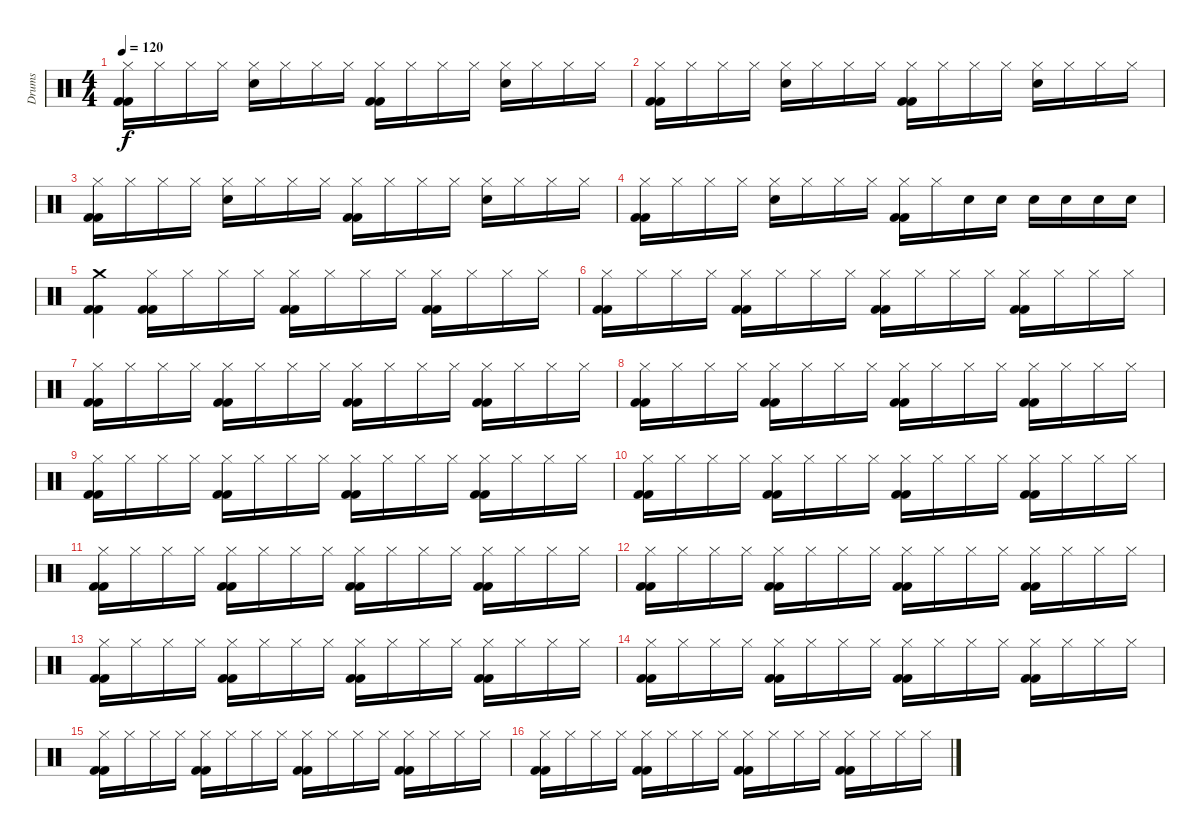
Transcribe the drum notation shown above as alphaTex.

\track ("Drums" "Drums") {instrument percussion}
\staff {score}
\articulation defaults
\ts (4 4)
\tempo 120
\clef neutral
\ks c
("Hi-Hat (closed)" "Kick (hit) 2" "Kick (hit) 2").16{dy f} "Hi-Hat (closed)".16 "Hi-Hat (closed)".16 "Hi-Hat (closed)".16 ("Hi-Hat (closed)" "Electric Snare (hit)").16 "Hi-Hat (closed)".16 "Hi-Hat (closed)".16 "Hi-Hat (closed)".16 ("Hi-Hat (closed)" "Kick (hit) 2" "Kick (hit) 2").16 "Hi-Hat (closed)".16 "Hi-Hat (closed)".16 "Hi-Hat (closed)".16 ("Hi-Hat (closed)" "Electric Snare (hit)").16 "Hi-Hat (closed)".16 "Hi-Hat (closed)".16 "Hi-Hat (closed)".16 |
("Hi-Hat (closed)" "Kick (hit) 2" "Kick (hit) 2").16 "Hi-Hat (closed)".16 "Hi-Hat (closed)".16 "Hi-Hat (closed)".16 ("Hi-Hat (closed)" "Electric Snare (hit)").16 "Hi-Hat (closed)".16 "Hi-Hat (closed)".16 "Hi-Hat (closed)".16 ("Hi-Hat (closed)" "Kick (hit) 2" "Kick (hit) 2").16 "Hi-Hat (closed)".16 "Hi-Hat (closed)".16 "Hi-Hat (closed)".16 ("Hi-Hat (closed)" "Electric Snare (hit)").16 "Hi-Hat (closed)".16 "Hi-Hat (closed)".16 "Hi-Hat (closed)".16 |
("Hi-Hat (closed)" "Kick (hit) 2" "Kick (hit) 2").16 "Hi-Hat (closed)".16 "Hi-Hat (closed)".16 "Hi-Hat (closed)".16 ("Hi-Hat (closed)" "Electric Snare (hit)").16 "Hi-Hat (closed)".16 "Hi-Hat (closed)".16 "Hi-Hat (closed)".16 ("Hi-Hat (closed)" "Kick (hit) 2" "Kick (hit) 2").16 "Hi-Hat (closed)".16 "Hi-Hat (closed)".16 "Hi-Hat (closed)".16 ("Hi-Hat (closed)" "Electric Snare (hit)").16 "Hi-Hat (closed)".16 "Hi-Hat (closed)".16 "Hi-Hat (closed)".16 |
("Hi-Hat (closed)" "Kick (hit) 2" "Kick (hit) 2").16 "Hi-Hat (closed)".16 "Hi-Hat (closed)".16 "Hi-Hat (closed)".16 ("Hi-Hat (closed)" "Electric Snare (hit)").16 "Hi-Hat (closed)".16 "Hi-Hat (closed)".16 "Hi-Hat (closed)".16 ("Hi-Hat (closed)" "Kick (hit) 2" "Kick (hit) 2").16 "Hi-Hat (closed)".16 "Electric Snare (hit)".16 "Electric Snare (hit)".16 "Electric Snare (hit)".16 "Electric Snare (hit)".16 "Electric Snare (hit)".16 "Electric Snare (hit)".16 |
("Crash medium (hit)" "Kick (hit) 2" "Kick (hit) 2").4 ("Hi-Hat (closed)" "Kick (hit) 2" "Kick (hit) 2").16 "Hi-Hat (closed)".16 "Hi-Hat (closed)".16 "Hi-Hat (closed)".16 ("Hi-Hat (closed)" "Kick (hit) 2" "Kick (hit) 2").16 "Hi-Hat (closed)".16 "Hi-Hat (closed)".16 "Hi-Hat (closed)".16 ("Hi-Hat (closed)" "Kick (hit) 2" "Kick (hit) 2").16 "Hi-Hat (closed)".16 "Hi-Hat (closed)".16 "Hi-Hat (closed)".16 |
("Hi-Hat (closed)" "Kick (hit) 2" "Kick (hit) 2").16 "Hi-Hat (closed)".16 "Hi-Hat (closed)".16 "Hi-Hat (closed)".16 ("Hi-Hat (closed)" "Kick (hit) 2" "Kick (hit) 2").16 "Hi-Hat (closed)".16 "Hi-Hat (closed)".16 "Hi-Hat (closed)".16 ("Hi-Hat (closed)" "Kick (hit) 2" "Kick (hit) 2").16 "Hi-Hat (closed)".16 "Hi-Hat (closed)".16 "Hi-Hat (closed)".16 ("Hi-Hat (closed)" "Kick (hit) 2" "Kick (hit) 2").16 "Hi-Hat (closed)".16 "Hi-Hat (closed)".16 "Hi-Hat (closed)".16 |
("Hi-Hat (closed)" "Kick (hit) 2" "Kick (hit) 2").16 "Hi-Hat (closed)".16 "Hi-Hat (closed)".16 "Hi-Hat (closed)".16 ("Hi-Hat (closed)" "Kick (hit) 2" "Kick (hit) 2").16 "Hi-Hat (closed)".16 "Hi-Hat (closed)".16 "Hi-Hat (closed)".16 ("Hi-Hat (closed)" "Kick (hit) 2" "Kick (hit) 2").16 "Hi-Hat (closed)".16 "Hi-Hat (closed)".16 "Hi-Hat (closed)".16 ("Hi-Hat (closed)" "Kick (hit) 2" "Kick (hit) 2").16 "Hi-Hat (closed)".16 "Hi-Hat (closed)".16 "Hi-Hat (closed)".16 |
("Hi-Hat (closed)" "Kick (hit) 2" "Kick (hit) 2").16 "Hi-Hat (closed)".16 "Hi-Hat (closed)".16 "Hi-Hat (closed)".16 ("Hi-Hat (closed)" "Kick (hit) 2" "Kick (hit) 2").16 "Hi-Hat (closed)".16 "Hi-Hat (closed)".16 "Hi-Hat (closed)".16 ("Hi-Hat (closed)" "Kick (hit) 2" "Kick (hit) 2").16 "Hi-Hat (closed)".16 "Hi-Hat (closed)".16 "Hi-Hat (closed)".16 ("Hi-Hat (closed)" "Kick (hit) 2" "Kick (hit) 2").16 "Hi-Hat (closed)".16 "Hi-Hat (closed)".16 "Hi-Hat (closed)".16 |
("Hi-Hat (closed)" "Kick (hit) 2" "Kick (hit) 2").16 "Hi-Hat (closed)".16 "Hi-Hat (closed)".16 "Hi-Hat (closed)".16 ("Hi-Hat (closed)" "Kick (hit) 2" "Kick (hit) 2").16 "Hi-Hat (closed)".16 "Hi-Hat (closed)".16 "Hi-Hat (closed)".16 ("Hi-Hat (closed)" "Kick (hit) 2" "Kick (hit) 2").16 "Hi-Hat (closed)".16 "Hi-Hat (closed)".16 "Hi-Hat (closed)".16 ("Hi-Hat (closed)" "Kick (hit) 2" "Kick (hit) 2").16 "Hi-Hat (closed)".16 "Hi-Hat (closed)".16 "Hi-Hat (closed)".16 |
("Hi-Hat (closed)" "Kick (hit) 2" "Kick (hit) 2").16 "Hi-Hat (closed)".16 "Hi-Hat (closed)".16 "Hi-Hat (closed)".16 ("Hi-Hat (closed)" "Kick (hit) 2" "Kick (hit) 2").16 "Hi-Hat (closed)".16 "Hi-Hat (closed)".16 "Hi-Hat (closed)".16 ("Hi-Hat (closed)" "Kick (hit) 2" "Kick (hit) 2").16 "Hi-Hat (closed)".16 "Hi-Hat (closed)".16 "Hi-Hat (closed)".16 ("Hi-Hat (closed)" "Kick (hit) 2" "Kick (hit) 2").16 "Hi-Hat (closed)".16 "Hi-Hat (closed)".16 "Hi-Hat (closed)".16 |
("Hi-Hat (closed)" "Kick (hit) 2" "Kick (hit) 2").16 "Hi-Hat (closed)".16 "Hi-Hat (closed)".16 "Hi-Hat (closed)".16 ("Hi-Hat (closed)" "Kick (hit) 2" "Kick (hit) 2").16 "Hi-Hat (closed)".16 "Hi-Hat (closed)".16 "Hi-Hat (closed)".16 ("Hi-Hat (closed)" "Kick (hit) 2" "Kick (hit) 2").16 "Hi-Hat (closed)".16 "Hi-Hat (closed)".16 "Hi-Hat (closed)".16 ("Hi-Hat (closed)" "Kick (hit) 2" "Kick (hit) 2").16 "Hi-Hat (closed)".16 "Hi-Hat (closed)".16 "Hi-Hat (closed)".16 |
("Hi-Hat (closed)" "Kick (hit) 2" "Kick (hit) 2").16 "Hi-Hat (closed)".16 "Hi-Hat (closed)".16 "Hi-Hat (closed)".16 ("Hi-Hat (closed)" "Kick (hit) 2" "Kick (hit) 2").16 "Hi-Hat (closed)".16 "Hi-Hat (closed)".16 "Hi-Hat (closed)".16 ("Hi-Hat (closed)" "Kick (hit) 2" "Kick (hit) 2").16 "Hi-Hat (closed)".16 "Hi-Hat (closed)".16 "Hi-Hat (closed)".16 ("Hi-Hat (closed)" "Kick (hit) 2" "Kick (hit) 2").16 "Hi-Hat (closed)".16 "Hi-Hat (closed)".16 "Hi-Hat (closed)".16 |
("Hi-Hat (closed)" "Kick (hit) 2" "Kick (hit) 2").16 "Hi-Hat (closed)".16 "Hi-Hat (closed)".16 "Hi-Hat (closed)".16 ("Hi-Hat (closed)" "Kick (hit) 2" "Kick (hit) 2").16 "Hi-Hat (closed)".16 "Hi-Hat (closed)".16 "Hi-Hat (closed)".16 ("Hi-Hat (closed)" "Kick (hit) 2" "Kick (hit) 2").16 "Hi-Hat (closed)".16 "Hi-Hat (closed)".16 "Hi-Hat (closed)".16 ("Hi-Hat (closed)" "Kick (hit) 2" "Kick (hit) 2").16 "Hi-Hat (closed)".16 "Hi-Hat (closed)".16 "Hi-Hat (closed)".16 |
("Hi-Hat (closed)" "Kick (hit) 2" "Kick (hit) 2").16 "Hi-Hat (closed)".16 "Hi-Hat (closed)".16 "Hi-Hat (closed)".16 ("Hi-Hat (closed)" "Kick (hit) 2" "Kick (hit) 2").16 "Hi-Hat (closed)".16 "Hi-Hat (closed)".16 "Hi-Hat (closed)".16 ("Hi-Hat (closed)" "Kick (hit) 2" "Kick (hit) 2").16 "Hi-Hat (closed)".16 "Hi-Hat (closed)".16 "Hi-Hat (closed)".16 ("Hi-Hat (closed)" "Kick (hit) 2" "Kick (hit) 2").16 "Hi-Hat (closed)".16 "Hi-Hat (closed)".16 "Hi-Hat (closed)".16 |
("Hi-Hat (closed)" "Kick (hit) 2" "Kick (hit) 2").16 "Hi-Hat (closed)".16 "Hi-Hat (closed)".16 "Hi-Hat (closed)".16 ("Hi-Hat (closed)" "Kick (hit) 2" "Kick (hit) 2").16 "Hi-Hat (closed)".16 "Hi-Hat (closed)".16 "Hi-Hat (closed)".16 ("Hi-Hat (closed)" "Kick (hit) 2" "Kick (hit) 2").16 "Hi-Hat (closed)".16 "Hi-Hat (closed)".16 "Hi-Hat (closed)".16 ("Hi-Hat (closed)" "Kick (hit) 2" "Kick (hit) 2").16 "Hi-Hat (closed)".16 "Hi-Hat (closed)".16 "Hi-Hat (closed)".16 |
("Hi-Hat (closed)" "Kick (hit) 2" "Kick (hit) 2").16 "Hi-Hat (closed)".16 "Hi-Hat (closed)".16 "Hi-Hat (closed)".16 ("Hi-Hat (closed)" "Kick (hit) 2" "Kick (hit) 2").16 "Hi-Hat (closed)".16 "Hi-Hat (closed)".16 "Hi-Hat (closed)".16 ("Hi-Hat (closed)" "Kick (hit) 2" "Kick (hit) 2").16 "Hi-Hat (closed)".16 "Hi-Hat (closed)".16 "Hi-Hat (closed)".16 ("Hi-Hat (closed)" "Kick (hit) 2" "Kick (hit) 2").16 "Hi-Hat (closed)".16 "Hi-Hat (closed)".16 "Hi-Hat (closed)".16
